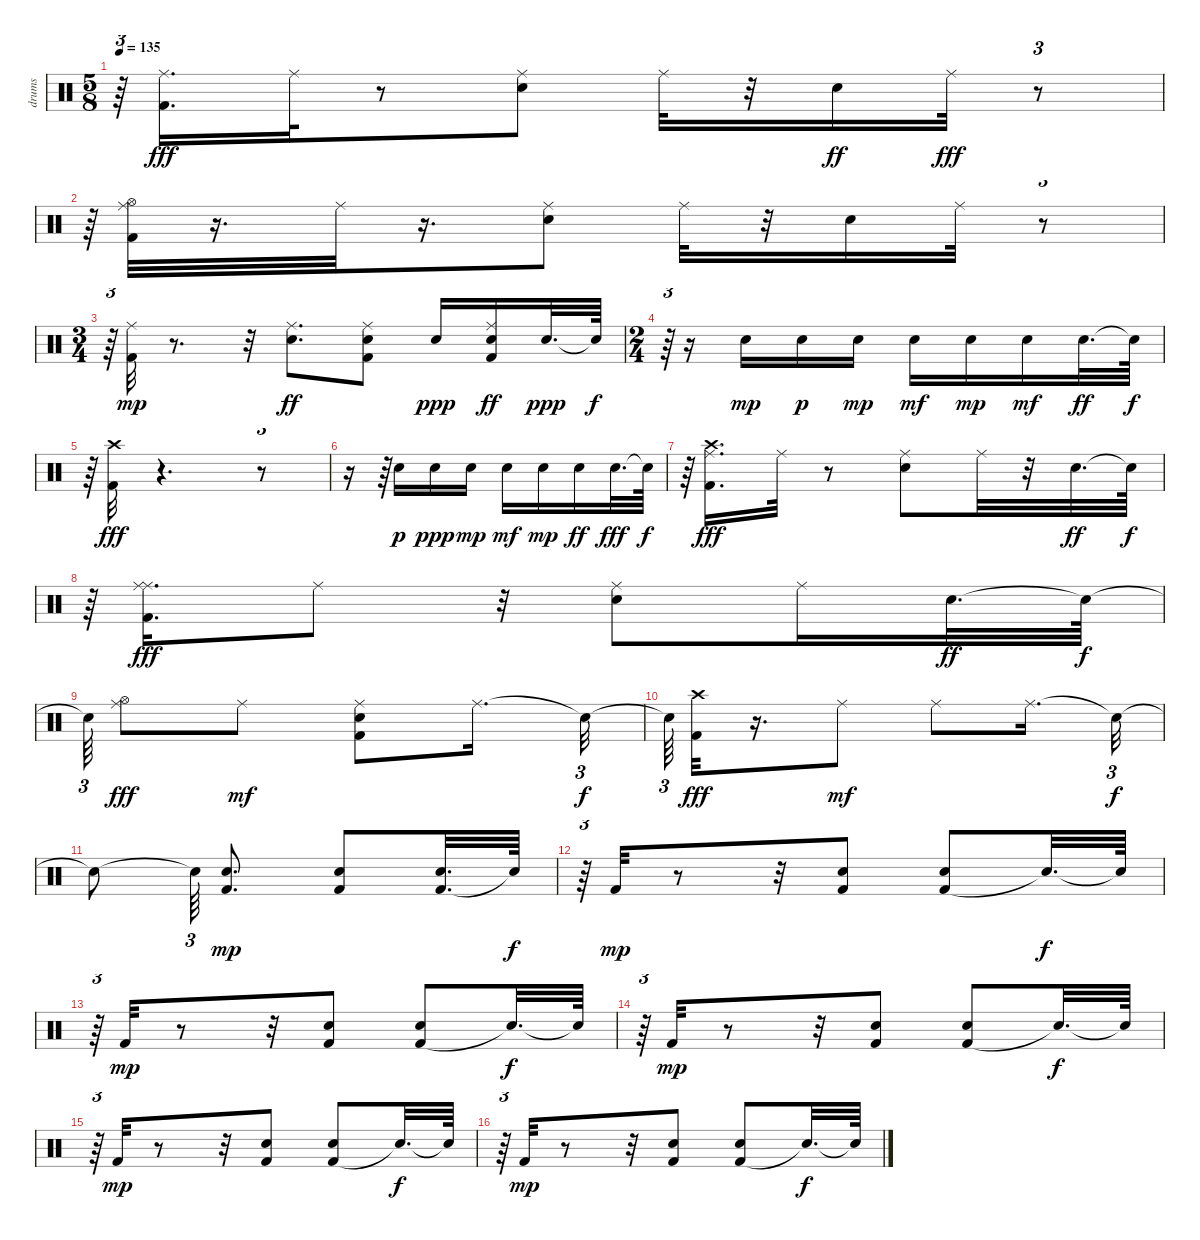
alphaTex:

\track ("drums               " "drums     ") {instrument percussion}
\staff {score}
\articulation defaults
\ts (5 8)
\tempo 135
\clef neutral
\ks c
r.64{tu (3 2) dy fff} ("Kick (hit) 2" "Ride (middle)").16{d} "Ride (middle)".32 r.8 ("Snare (hit) 2" "Ride (middle)").8 "Ride (middle)".32 r.32 "Snare (hit) 2".16{dy ff} "Ride (middle)".32{dy fff} r.8{tu (3 2)} |
r.64{tu (3 2)} ("Kick (hit) 2" "Hi-Hat (open)" "Ride (middle)").32 r.16{d} "Ride (middle)".32 r.16{d} ("Snare (hit) 2" "Ride (middle)").8 "Ride (middle)".32 r.32 "Snare (hit) 2".16 "Ride (middle)".32 r.8{tu (3 2)} |
\ts (3 4)
r.64{tu (3 2)} ("Kick (hit) 2" "Ride (middle)").32{dy mp} r.8{d} r.32 ("Snare (hit) 2" "Ride (middle)").8{d dy ff} ("Kick (hit) 2" "Snare (hit) 2" "Ride (middle)").8 "Snare (hit) 2".16{dy ppp} ("Kick (hit) 2" "Snare (hit) 2" "Ride (middle)").16{dy ff} "Snare (hit) 2".32{d dy ppp} "Snare (hit)"{t}.64{dy f} |
\ts (2 4)
r.64{tu (3 2)} r.16 "Snare (hit) 2".16{dy mp} "Snare (hit) 2".16{dy p} "Snare (hit) 2".16{dy mp} "Snare (hit) 2".16{dy mf} "Snare (hit) 2".16{dy mp} "Snare (hit) 2".16{dy mf} "Snare (hit) 2".32{d dy ff} "Snare (hit)"{t}.64{dy f} |
r.64{tu (3 2)} ("Kick (hit) 2" "Crash high (hit)").32{dy fff} r.4{d} r.8{tu (3 2)} |
r.16 r.64{tu (3 2)} "Snare (hit) 2".16{dy p} "Snare (hit) 2".16{dy ppp} "Snare (hit) 2".16{dy mp} "Snare (hit) 2".16{dy mf} "Snare (hit) 2".16{dy mp} "Snare (hit) 2".16{dy ff} "Snare (hit) 2".32{d dy fff} "Snare (hit)"{t}.64{dy f} |
r.64{tu (3 2)} ("Kick (hit) 2" "Crash high (hit)" "Ride (middle)").16{d dy fff} "Ride (middle)".32 r.8 ("Snare (hit) 2" "Ride (middle)").8 "Ride (middle)".32 r.32 "Snare (hit) 2".32{d dy ff} "Snare (hit)"{t}.64{dy f} |
r.64{tu (3 2)} ("Kick (hit) 2" "Ride (middle)" "Ride (middle)").16{d dy fff} "Ride (middle)".8 r.32 ("Snare (hit) 2" "Ride (middle)").8 "Ride (middle)".16 "Snare (hit) 2".32{d dy ff} "Snare (hit)"{t}.64{dy f} |
"Snare (hit)"{t}.64{tu (3 2)} ("Hi-Hat (open)" "Ride (middle)").8{dy fff} "Ride (middle)".8{dy mf} ("Kick (hit) 2" "Snare (hit) 2" "Ride (middle)").8 "Ride (middle)".16{d} "Snare (hit)"{t}.32{tu (3 2) dy f} |
"Snare (hit)"{t}.64{tu (3 2)} ("Kick (hit) 2" "Crash high (hit)").32{dy fff} r.16{d} "Ride (middle)".8{dy mf} "Ride (middle)".8 "Ride (middle)".16{d} "Snare (hit)"{t}.32{tu (3 2) dy f} |
"Snare (hit)"{t}.8 "Snare (hit)"{t}.64{tu (3 2)} ("Kick (hit) 2" "Snare (hit) 2").8{d dy mp} ("Kick (hit) 2" "Snare (hit) 2").8 ("Kick (hit) 2" "Snare (hit) 2").32{d} "Snare (hit)"{t}.64{dy f} |
r.64{tu (3 2)} "Kick (hit) 2".32{dy mp} r.8 r.32 ("Kick (hit) 2" "Snare (hit) 2").8 ("Kick (hit) 2" "Snare (hit) 2").8 "Snare (hit)"{t}.32{d dy f} "Snare (hit)"{t}.64 |
r.64{tu (3 2)} "Kick (hit) 2".32{dy mp} r.8 r.32 ("Kick (hit) 2" "Snare (hit) 2").8 ("Kick (hit) 2" "Snare (hit) 2").8 "Snare (hit)"{t}.32{d dy f} "Snare (hit)"{t}.64 |
r.64{tu (3 2)} "Kick (hit) 2".32{dy mp} r.8 r.32 ("Kick (hit) 2" "Snare (hit) 2").8 ("Kick (hit) 2" "Snare (hit) 2").8 "Snare (hit)"{t}.32{d dy f} "Snare (hit)"{t}.64 |
r.64{tu (3 2)} "Kick (hit) 2".32{dy mp} r.8 r.32 ("Kick (hit) 2" "Snare (hit) 2").8 ("Kick (hit) 2" "Snare (hit) 2").8 "Snare (hit)"{t}.32{d dy f} "Snare (hit)"{t}.64 |
r.64{tu (3 2)} "Kick (hit) 2".32{dy mp} r.8 r.32 ("Kick (hit) 2" "Snare (hit) 2").8 ("Kick (hit) 2" "Snare (hit) 2").8 "Snare (hit)"{t}.32{d dy f} "Snare (hit)"{t}.64
